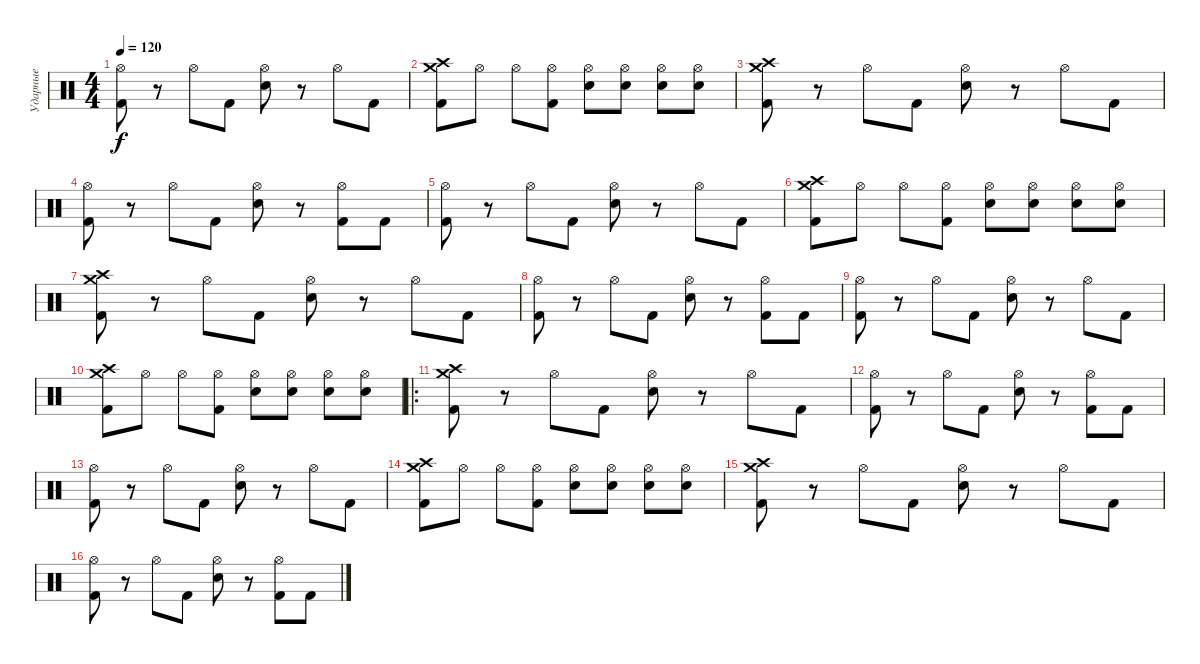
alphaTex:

\track ("Ударные" "Ударные") {instrument percussion}
\staff {score}
\articulation defaults
\ts (4 4)
\tempo 120
\clef neutral
\ks c
("Hi-Hat (open)" "Kick (hit) 2").8{dy f} r.8 "Hi-Hat (open)".8 "Kick (hit) 2".8 ("Hi-Hat (open)" "Electric Snare (hit)").8 r.8 "Hi-Hat (open)".8 "Kick (hit) 2".8 |
("Crash high (hit)" "Crash medium (hit)" "Kick (hit) 2").8 "Hi-Hat (open)".8 "Hi-Hat (open)".8 ("Hi-Hat (open)" "Kick (hit) 2").8 ("Hi-Hat (open)" "Electric Snare (hit)").8 ("Hi-Hat (open)" "Electric Snare (hit)").8 ("Hi-Hat (open)" "Electric Snare (hit)").8 ("Hi-Hat (open)" "Electric Snare (hit)").8 |
("Crash high (hit)" "Crash medium (hit)" "Kick (hit) 2").8 r.8 "Hi-Hat (open)".8 "Kick (hit) 2".8 ("Hi-Hat (open)" "Electric Snare (hit)").8 r.8 "Hi-Hat (open)".8 "Kick (hit) 2".8 |
("Hi-Hat (open)" "Kick (hit) 2").8 r.8 "Hi-Hat (open)".8 "Kick (hit) 2".8 ("Hi-Hat (open)" "Electric Snare (hit)").8 r.8 ("Hi-Hat (open)" "Kick (hit) 2").8 "Kick (hit) 2".8 |
("Hi-Hat (open)" "Kick (hit) 2").8 r.8 "Hi-Hat (open)".8 "Kick (hit) 2".8 ("Hi-Hat (open)" "Electric Snare (hit)").8 r.8 "Hi-Hat (open)".8 "Kick (hit) 2".8 |
("Crash high (hit)" "Crash medium (hit)" "Kick (hit) 2").8 "Hi-Hat (open)".8 "Hi-Hat (open)".8 ("Hi-Hat (open)" "Kick (hit) 2").8 ("Hi-Hat (open)" "Electric Snare (hit)").8 ("Hi-Hat (open)" "Electric Snare (hit)").8 ("Hi-Hat (open)" "Electric Snare (hit)").8 ("Hi-Hat (open)" "Electric Snare (hit)").8 |
("Crash high (hit)" "Crash medium (hit)" "Kick (hit) 2").8 r.8 "Hi-Hat (open)".8 "Kick (hit) 2".8 ("Hi-Hat (open)" "Electric Snare (hit)").8 r.8 "Hi-Hat (open)".8 "Kick (hit) 2".8 |
("Hi-Hat (open)" "Kick (hit) 2").8 r.8 "Hi-Hat (open)".8 "Kick (hit) 2".8 ("Hi-Hat (open)" "Electric Snare (hit)").8 r.8 ("Hi-Hat (open)" "Kick (hit) 2").8 "Kick (hit) 2".8 |
("Hi-Hat (open)" "Kick (hit) 2").8 r.8 "Hi-Hat (open)".8 "Kick (hit) 2".8 ("Hi-Hat (open)" "Electric Snare (hit)").8 r.8 "Hi-Hat (open)".8 "Kick (hit) 2".8 |
("Crash high (hit)" "Crash medium (hit)" "Kick (hit) 2").8 "Hi-Hat (open)".8 "Hi-Hat (open)".8 ("Hi-Hat (open)" "Kick (hit) 2").8 ("Hi-Hat (open)" "Electric Snare (hit)").8 ("Hi-Hat (open)" "Electric Snare (hit)").8 ("Hi-Hat (open)" "Electric Snare (hit)").8 ("Hi-Hat (open)" "Electric Snare (hit)").8 |
\ro
("Crash high (hit)" "Crash medium (hit)" "Kick (hit) 2").8 r.8 "Hi-Hat (open)".8 "Kick (hit) 2".8 ("Hi-Hat (open)" "Electric Snare (hit)").8 r.8 "Hi-Hat (open)".8 "Kick (hit) 2".8 |
("Hi-Hat (open)" "Kick (hit) 2").8 r.8 "Hi-Hat (open)".8 "Kick (hit) 2".8 ("Hi-Hat (open)" "Electric Snare (hit)").8 r.8 ("Hi-Hat (open)" "Kick (hit) 2").8 "Kick (hit) 2".8 |
("Hi-Hat (open)" "Kick (hit) 2").8 r.8 "Hi-Hat (open)".8 "Kick (hit) 2".8 ("Hi-Hat (open)" "Electric Snare (hit)").8 r.8 "Hi-Hat (open)".8 "Kick (hit) 2".8 |
("Crash high (hit)" "Crash medium (hit)" "Kick (hit) 2").8 "Hi-Hat (open)".8 "Hi-Hat (open)".8 ("Hi-Hat (open)" "Kick (hit) 2").8 ("Hi-Hat (open)" "Electric Snare (hit)").8 ("Hi-Hat (open)" "Electric Snare (hit)").8 ("Hi-Hat (open)" "Electric Snare (hit)").8 ("Hi-Hat (open)" "Electric Snare (hit)").8 |
("Crash high (hit)" "Crash medium (hit)" "Kick (hit) 2").8 r.8 "Hi-Hat (open)".8 "Kick (hit) 2".8 ("Hi-Hat (open)" "Electric Snare (hit)").8 r.8 "Hi-Hat (open)".8 "Kick (hit) 2".8 |
("Hi-Hat (open)" "Kick (hit) 2").8 r.8 "Hi-Hat (open)".8 "Kick (hit) 2".8 ("Hi-Hat (open)" "Electric Snare (hit)").8 r.8 ("Hi-Hat (open)" "Kick (hit) 2").8 "Kick (hit) 2".8
